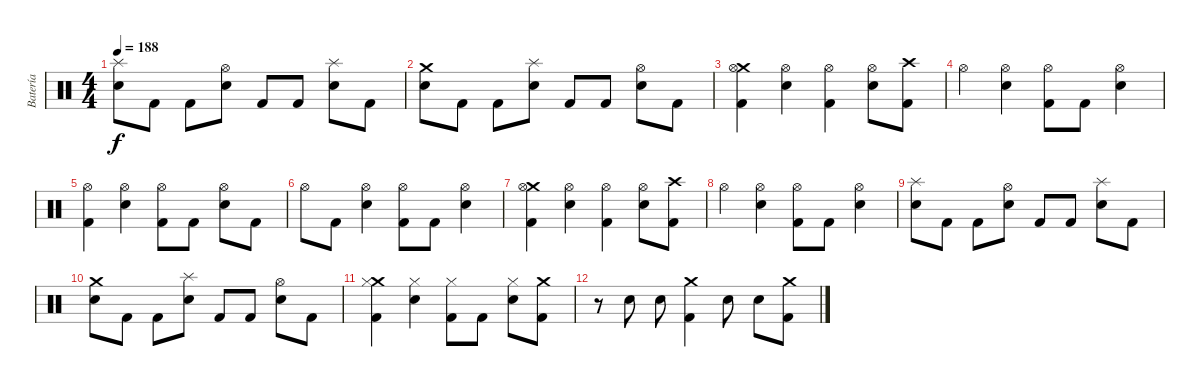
\track ("Batería" "Batería") {instrument percussion}
\staff {score}
\articulation defaults
\ts (4 4)
\tempo 188
\clef neutral
\ks c
("Splash (hit)" "Electric Snare (hit)").8{dy f} "Kick (hit) 2".8 "Kick (hit) 2".8 ("Hi-Hat (open)" "Electric Snare (hit)").8 "Kick (hit) 2".8 "Kick (hit) 2".8 ("Splash (hit)" "Electric Snare (hit)").8 "Kick (hit) 2".8 |
("Crash medium (hit)" "Electric Snare (hit)").8 "Kick (hit) 2".8 "Kick (hit) 2".8 ("Splash (hit)" "Electric Snare (hit)").8 "Kick (hit) 2".8 "Kick (hit) 2".8 ("Hi-Hat (open)" "Electric Snare (hit)").8 "Kick (hit) 2".8 |
("Crash medium (hit)" "Hi-Hat (open)" "Kick (hit) 2").4 ("Hi-Hat (open)" "Electric Snare (hit)").4 ("Hi-Hat (open)" "Kick (hit) 2").4 ("Hi-Hat (open)" "Electric Snare (hit)").8 ("Crash high (hit)" "Kick (hit) 2").8 |
"Hi-Hat (open)".4 ("Hi-Hat (open)" "Electric Snare (hit)").4 ("Hi-Hat (open)" "Kick (hit) 2").8 "Kick (hit) 2".8 ("Hi-Hat (open)" "Electric Snare (hit)").4 |
("Hi-Hat (open)" "Kick (hit) 2").4 ("Hi-Hat (open)" "Electric Snare (hit)").4 ("Hi-Hat (open)" "Kick (hit) 2").8 "Kick (hit) 2".8 ("Hi-Hat (open)" "Electric Snare (hit)").8 "Kick (hit) 2".8 |
"Hi-Hat (open)".8 "Kick (hit) 2".8 ("Hi-Hat (open)" "Electric Snare (hit)").4 ("Hi-Hat (open)" "Kick (hit) 2").8 "Kick (hit) 2".8 ("Hi-Hat (open)" "Electric Snare (hit)").4 |
("Crash medium (hit)" "Hi-Hat (open)" "Kick (hit) 2").4 ("Hi-Hat (open)" "Electric Snare (hit)").4 ("Hi-Hat (open)" "Kick (hit) 2").4 ("Hi-Hat (open)" "Electric Snare (hit)").8 ("Crash high (hit)" "Kick (hit) 2").8 |
"Hi-Hat (open)".4 ("Hi-Hat (open)" "Electric Snare (hit)").4 ("Hi-Hat (open)" "Kick (hit) 2").8 "Kick (hit) 2".8 ("Hi-Hat (open)" "Electric Snare (hit)").4 |
("Splash (hit)" "Electric Snare (hit)").8 "Kick (hit) 2".8 "Kick (hit) 2".8 ("Hi-Hat (open)" "Electric Snare (hit)").8 "Kick (hit) 2".8 "Kick (hit) 2".8 ("Splash (hit)" "Electric Snare (hit)").8 "Kick (hit) 2".8 |
("Crash medium (hit)" "Electric Snare (hit)").8 "Kick (hit) 2".8 "Kick (hit) 2".8 ("Splash (hit)" "Electric Snare (hit)").8 "Kick (hit) 2".8 "Kick (hit) 2".8 ("Hi-Hat (open)" "Electric Snare (hit)").8 "Kick (hit) 2".8 |
("Crash medium (hit)" "Hi-Hat (closed)" "Kick (hit) 2").4 ("Hi-Hat (closed)" "Electric Snare (hit)").4 ("Hi-Hat (closed)" "Kick (hit) 2").8 "Kick (hit) 2".8 ("Hi-Hat (closed)" "Electric Snare (hit)").8 ("Crash medium (hit)" "Kick (hit) 2").8 |
r.8 "Electric Snare (hit)".8 "Electric Snare (hit)".8 ("Crash medium (hit)" "Kick (hit) 2").4 "Electric Snare (hit)".8 "Electric Snare (hit)".8 ("Crash medium (hit)" "Kick (hit) 2").8
